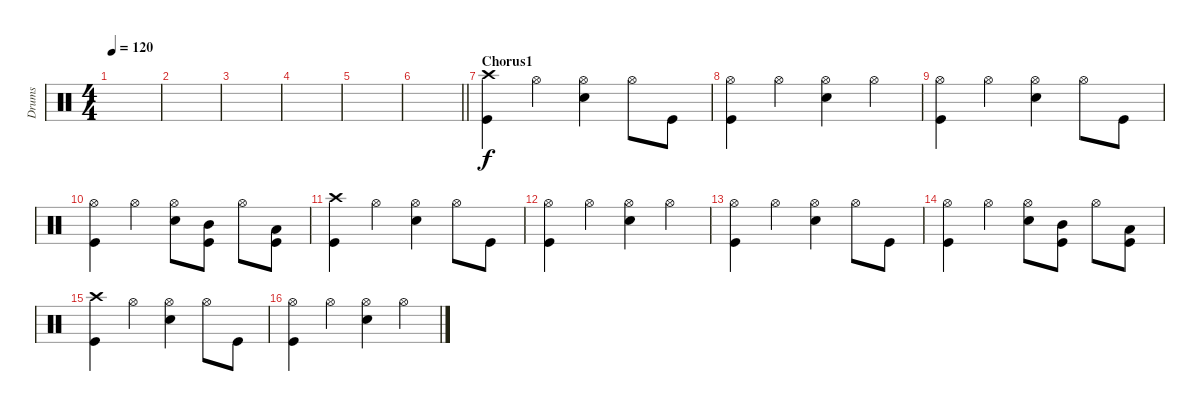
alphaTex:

\track ("Drums" "Drums") {instrument percussion}
\staff {score}
\articulation defaults
\ts (4 4)
\tempo 120
\clef neutral
\ks c
|
|
|
|
|
\barLineRight lightlight
|
\section ("" "Chorus1")
("Crash high (hit)" "Kick (hit)").4 "Hi-Hat (open)".4 ("Hi-Hat (open)" "Snare (hit) 2").4 "Hi-Hat (open)".8 "Kick (hit)".8 |
("Hi-Hat (open)" "Kick (hit)").4 "Hi-Hat (open)".4 ("Hi-Hat (open)" "Snare (hit) 2").4 "Hi-Hat (open)".4 |
("Hi-Hat (open)" "Kick (hit)").4 "Hi-Hat (open)".4 ("Hi-Hat (open)" "Snare (hit) 2").4 "Hi-Hat (open)".8 "Kick (hit)".8 |
("Hi-Hat (open)" "Kick (hit)").4 "Hi-Hat (open)".4 ("Hi-Hat (open)" "Snare (hit) 2").8 ("Mid Tom (hit)" "Kick (hit)").8 "Hi-Hat (open)".8 ("Low Tom (hit)" "Kick (hit)").8 |
("Crash high (hit)" "Kick (hit)").4 "Hi-Hat (open)".4 ("Hi-Hat (open)" "Snare (hit) 2").4 "Hi-Hat (open)".8 "Kick (hit)".8 |
("Hi-Hat (open)" "Kick (hit)").4 "Hi-Hat (open)".4 ("Hi-Hat (open)" "Snare (hit) 2").4 "Hi-Hat (open)".4 |
("Hi-Hat (open)" "Kick (hit)").4 "Hi-Hat (open)".4 ("Hi-Hat (open)" "Snare (hit) 2").4 "Hi-Hat (open)".8 "Kick (hit)".8 |
("Hi-Hat (open)" "Kick (hit)").4 "Hi-Hat (open)".4 ("Hi-Hat (open)" "Snare (hit) 2").8 ("Mid Tom (hit)" "Kick (hit)").8 "Hi-Hat (open)".8 ("Low Tom (hit)" "Kick (hit)").8 |
("Crash high (hit)" "Kick (hit)").4 "Hi-Hat (open)".4 ("Hi-Hat (open)" "Snare (hit) 2").4 "Hi-Hat (open)".8 "Kick (hit)".8 |
("Hi-Hat (open)" "Kick (hit)").4 "Hi-Hat (open)".4 ("Hi-Hat (open)" "Snare (hit) 2").4 "Hi-Hat (open)".4
